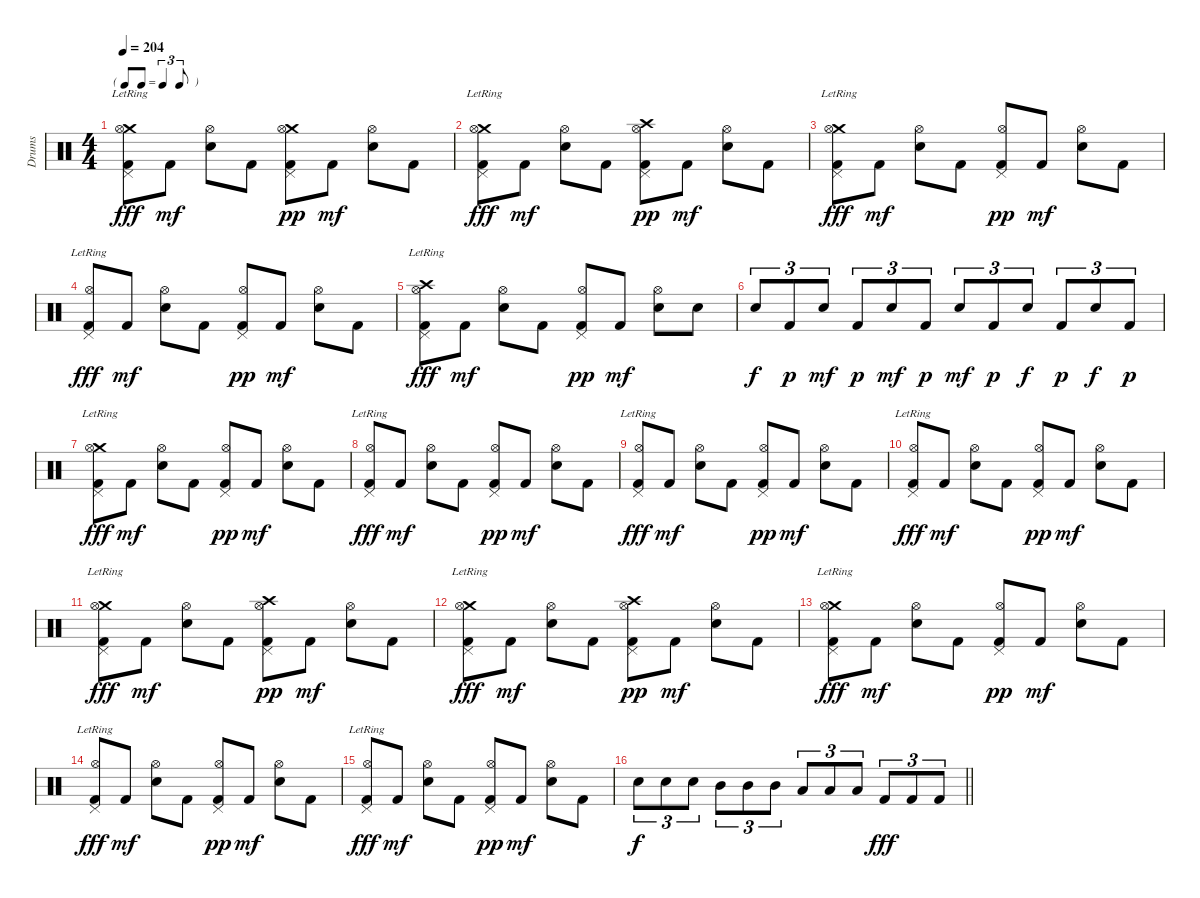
\track ("Drums" "Drums") {instrument percussion}
\staff {score}
\articulation defaults
\ts (4 4)
\tf triplet8th
\tempo 204
\clef neutral
\ks c
("Crash medium (hit)" "Pedal Hi-Hat (hit)" "Hi-Hat (open)" "Kick (hit) 2"{lr}).8{dy fff} "Kick (hit) 2".8{dy mf} ("Hi-Hat (open)" "Electric Snare (hit)").8 "Kick (hit) 2".8 ("Crash medium (hit)" "Pedal Hi-Hat (hit)" "Hi-Hat (open)" "Kick (hit) 2").8{dy pp} "Kick (hit) 2".8{dy mf} ("Hi-Hat (open)" "Electric Snare (hit)").8 "Kick (hit) 2".8 |
("Crash medium (hit)" "Pedal Hi-Hat (hit)" "Hi-Hat (open)" "Kick (hit) 2"{lr}).8{dy fff} "Kick (hit) 2".8{dy mf} ("Hi-Hat (open)" "Electric Snare (hit)").8 "Kick (hit) 2".8 ("Crash high (hit)" "Pedal Hi-Hat (hit)" "Hi-Hat (open)" "Kick (hit) 2").8{dy pp} "Kick (hit) 2".8{dy mf} ("Hi-Hat (open)" "Electric Snare (hit)").8 "Kick (hit) 2".8 |
("Crash medium (hit)" "Pedal Hi-Hat (hit)" "Hi-Hat (open)" "Kick (hit) 2"{lr}).8{dy fff} "Kick (hit) 2".8{dy mf} ("Hi-Hat (open)" "Electric Snare (hit)").8 "Kick (hit) 2".8 ("Pedal Hi-Hat (hit)" "Hi-Hat (open)" "Kick (hit) 2").8{dy pp} "Kick (hit) 2".8{dy mf} ("Hi-Hat (open)" "Electric Snare (hit)").8 "Kick (hit) 2".8 |
("Pedal Hi-Hat (hit)" "Hi-Hat (open)" "Kick (hit) 2"{lr}).8{dy fff} "Kick (hit) 2".8{dy mf} ("Hi-Hat (open)" "Electric Snare (hit)").8 "Kick (hit) 2".8 ("Pedal Hi-Hat (hit)" "Hi-Hat (open)" "Kick (hit) 2").8{dy pp} "Kick (hit) 2".8{dy mf} ("Hi-Hat (open)" "Electric Snare (hit)").8 "Kick (hit) 2".8 |
("Crash high (hit)" "Pedal Hi-Hat (hit)" "Hi-Hat (open)" "Kick (hit) 2"{lr}).8{dy fff} "Kick (hit) 2".8{dy mf} ("Hi-Hat (open)" "Electric Snare (hit)").8 "Kick (hit) 2".8 ("Pedal Hi-Hat (hit)" "Hi-Hat (open)" "Kick (hit) 2").8{dy pp} "Kick (hit) 2".8{dy mf} ("Hi-Hat (open)" "Electric Snare (hit)").8 "Snare (hit) 2".8 |
"Electric Snare (hit)".8{tu (3 2) dy f} "Kick (hit) 2".8{tu (3 2) dy p} "Electric Snare (hit)".8{tu (3 2) dy mf} "Kick (hit) 2".8{tu (3 2) dy p} "Electric Snare (hit)".8{tu (3 2) dy mf} "Kick (hit) 2".8{tu (3 2) dy p} "Electric Snare (hit)".8{tu (3 2) dy mf} "Kick (hit) 2".8{tu (3 2) dy p} "Electric Snare (hit)".8{tu (3 2) dy f} "Kick (hit) 2".8{tu (3 2) dy p} "Electric Snare (hit)".8{tu (3 2) dy f} "Kick (hit) 2".8{tu (3 2) dy p} |
("Crash medium (hit)" "Pedal Hi-Hat (hit)" "Hi-Hat (open)" "Kick (hit) 2"{lr}).8{dy fff} "Kick (hit) 2".8{dy mf} ("Hi-Hat (open)" "Electric Snare (hit)").8 "Kick (hit) 2".8 ("Pedal Hi-Hat (hit)" "Hi-Hat (open)" "Kick (hit) 2").8{dy pp} "Kick (hit) 2".8{dy mf} ("Hi-Hat (open)" "Electric Snare (hit)").8 "Kick (hit) 2".8 |
("Pedal Hi-Hat (hit)" "Hi-Hat (open)" "Kick (hit) 2"{lr}).8{dy fff} "Kick (hit) 2".8{dy mf} ("Hi-Hat (open)" "Electric Snare (hit)").8 "Kick (hit) 2".8 ("Pedal Hi-Hat (hit)" "Hi-Hat (open)" "Kick (hit) 2").8{dy pp} "Kick (hit) 2".8{dy mf} ("Hi-Hat (open)" "Electric Snare (hit)").8 "Kick (hit) 2".8 |
("Pedal Hi-Hat (hit)" "Hi-Hat (open)" "Kick (hit) 2"{lr}).8{dy fff} "Kick (hit) 2".8{dy mf} ("Hi-Hat (open)" "Electric Snare (hit)").8 "Kick (hit) 2".8 ("Pedal Hi-Hat (hit)" "Hi-Hat (open)" "Kick (hit) 2").8{dy pp} "Kick (hit) 2".8{dy mf} ("Hi-Hat (open)" "Electric Snare (hit)").8 "Kick (hit) 2".8 |
("Pedal Hi-Hat (hit)" "Hi-Hat (open)" "Kick (hit) 2"{lr}).8{dy fff} "Kick (hit) 2".8{dy mf} ("Hi-Hat (open)" "Electric Snare (hit)").8 "Kick (hit) 2".8 ("Pedal Hi-Hat (hit)" "Hi-Hat (open)" "Kick (hit) 2").8{dy pp} "Kick (hit) 2".8{dy mf} ("Hi-Hat (open)" "Electric Snare (hit)").8 "Kick (hit) 2".8 |
("Crash medium (hit)" "Pedal Hi-Hat (hit)" "Hi-Hat (open)" "Kick (hit) 2"{lr}).8{dy fff} "Kick (hit) 2".8{dy mf} ("Hi-Hat (open)" "Electric Snare (hit)").8 "Kick (hit) 2".8 ("Crash high (hit)" "Pedal Hi-Hat (hit)" "Hi-Hat (open)" "Kick (hit) 2").8{dy pp} "Kick (hit) 2".8{dy mf} ("Hi-Hat (open)" "Electric Snare (hit)").8 "Kick (hit) 2".8 |
("Crash medium (hit)" "Pedal Hi-Hat (hit)" "Hi-Hat (open)" "Kick (hit) 2"{lr}).8{dy fff} "Kick (hit) 2".8{dy mf} ("Hi-Hat (open)" "Electric Snare (hit)").8 "Kick (hit) 2".8 ("Crash high (hit)" "Pedal Hi-Hat (hit)" "Hi-Hat (open)" "Kick (hit) 2").8{dy pp} "Kick (hit) 2".8{dy mf} ("Hi-Hat (open)" "Electric Snare (hit)").8 "Kick (hit) 2".8 |
("Crash medium (hit)" "Pedal Hi-Hat (hit)" "Hi-Hat (open)" "Kick (hit) 2"{lr}).8{dy fff} "Kick (hit) 2".8{dy mf} ("Hi-Hat (open)" "Electric Snare (hit)").8 "Kick (hit) 2".8 ("Pedal Hi-Hat (hit)" "Hi-Hat (open)" "Kick (hit) 2").8{dy pp} "Kick (hit) 2".8{dy mf} ("Hi-Hat (open)" "Electric Snare (hit)").8 "Kick (hit) 2".8 |
("Pedal Hi-Hat (hit)" "Hi-Hat (open)" "Kick (hit) 2"{lr}).8{dy fff} "Kick (hit) 2".8{dy mf} ("Hi-Hat (open)" "Electric Snare (hit)").8 "Kick (hit) 2".8 ("Pedal Hi-Hat (hit)" "Hi-Hat (open)" "Kick (hit) 2").8{dy pp} "Kick (hit) 2".8{dy mf} ("Hi-Hat (open)" "Electric Snare (hit)").8 "Kick (hit) 2".8 |
("Pedal Hi-Hat (hit)" "Hi-Hat (open)" "Kick (hit) 2"{lr}).8{dy fff} "Kick (hit) 2".8{dy mf} ("Hi-Hat (open)" "Electric Snare (hit)").8 "Kick (hit) 2".8 ("Pedal Hi-Hat (hit)" "Hi-Hat (open)" "Kick (hit) 2").8{dy pp} "Kick (hit) 2".8{dy mf} ("Hi-Hat (open)" "Electric Snare (hit)").8 "Kick (hit) 2".8 |
\barLineRight lightlight "Electric Snare (hit)".8{tu (3 2) dy f} "Electric Snare (hit)".8{tu (3 2)} "Electric Snare (hit)".8{tu (3 2)} "Mid Tom (hit)".8{tu (3 2)} "Mid Tom (hit)".8{tu (3 2)} "Mid Tom (hit)".8{tu (3 2)} "Low Tom (hit)".8{tu (3 2)} "Low Tom (hit)".8{tu (3 2)} "Low Tom (hit)".8{tu (3 2)} "Kick (hit) 2".8{tu (3 2) dy fff} "Kick (hit) 2".8{tu (3 2)} "Kick (hit) 2".8{tu (3 2)}
